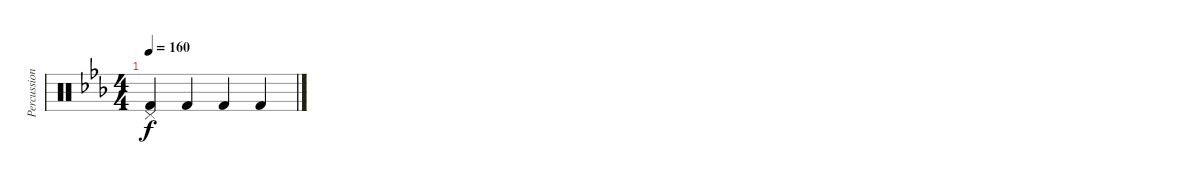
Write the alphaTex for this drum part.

\track ("Percussions" "Percussion") {instrument percussion}
\staff {score}
\articulation defaults
\ts (4 4)
\tempo 160
\clef neutral
\ks eb
("Pedal Hi-Hat (hit)" "Kick (hit) 2").4{dy f} "Kick (hit) 2".4 "Kick (hit) 2".4 "Kick (hit) 2".4
